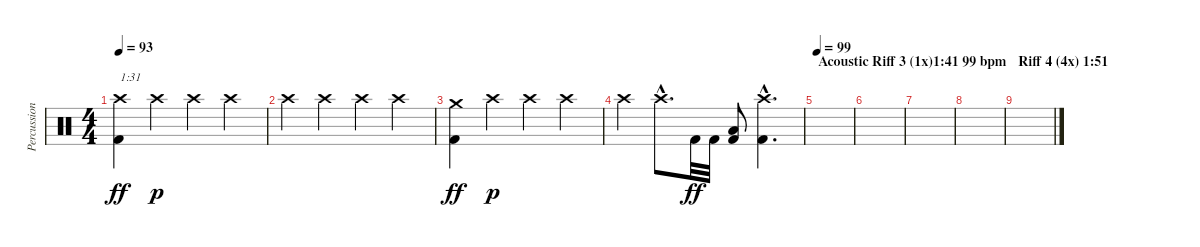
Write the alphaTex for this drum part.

\track ("Percussion" "Percussion") {instrument percussion}
\staff {score}
\articulation defaults
\ts (4 4)
\tempo 93
\clef neutral
\ks c
("Kick (hit) 2" "Crash high (hit)").4{txt "1:31" dy ff} "Crash high (hit)".4{dy p} "Crash high (hit)".4 "Crash high (hit)".4 |
"Crash high (hit)".4 "Crash high (hit)".4 "Crash high (hit)".4 "Crash high (hit)".4 |
("Kick (hit) 2" "Crash medium (hit)").4{dy ff} "Crash high (hit)".4{dy p} "Crash high (hit)".4 "Crash high (hit)".4 |
"Crash high (hit)".4 "Crash high (hit)"{hac}.8{d} "Kick (hit) 2".32{dy ff} "Kick (hit) 2".32 ("Kick (hit) 2" "Low Tom (hit)").8 ("Kick (hit) 2"{hac} "Crash high (hit)"{hac}).4{d} |
\section ("" "Acoustic Riff 3 (1x)1:41 99 bpm")
\tempo 99
|
|
|
|
\section ("" "Riff 4 (4x) 1:51")
